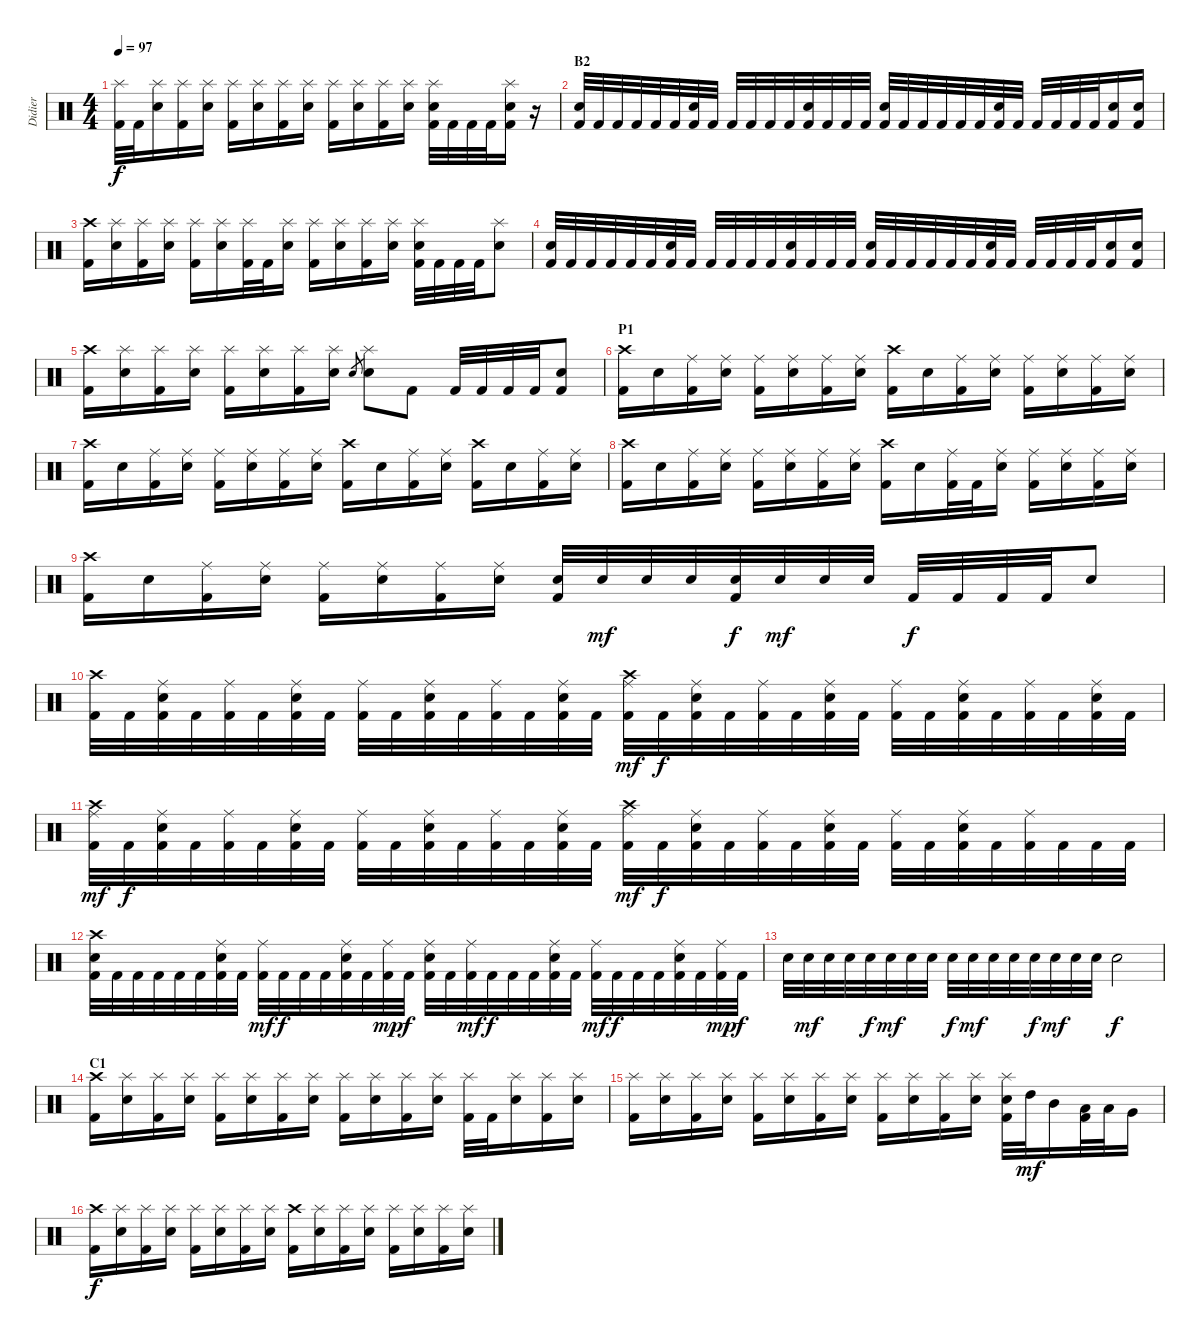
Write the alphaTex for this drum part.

\track ("Didier" "Didier") {instrument percussion}
\staff {score}
\articulation defaults
\ts (4 4)
\tempo 97
\clef neutral
\ks c
("Splash (hit)" "Kick (hit) 2").32{dy f} "Kick (hit) 2".32 ("Splash (hit)" "Snare (hit) 2").16 ("Splash (hit)" "Kick (hit) 2").16 ("Splash (hit)" "Snare (hit) 2").16 ("Splash (hit)" "Kick (hit) 2").16 ("Splash (hit)" "Snare (hit) 2").16 ("Splash (hit)" "Kick (hit) 2").16 ("Splash (hit)" "Snare (hit) 2").16 ("Splash (hit)" "Kick (hit) 2").16 ("Splash (hit)" "Snare (hit) 2").16 ("Splash (hit)" "Kick (hit) 2").16 ("Splash (hit)" "Snare (hit) 2").16 ("Splash (hit)" "Snare (hit) 2" "Kick (hit) 2").32 "Kick (hit) 2".32 "Kick (hit) 2".32 "Kick (hit) 2".32 ("Splash (hit)" "Snare (hit) 2" "Kick (hit) 2").16 r.16 |
\section ("" "B2")
("Snare (hit) 2" "Kick (hit) 2").32 "Kick (hit) 2".32 "Kick (hit) 2".32 "Kick (hit) 2".32 "Kick (hit) 2".32 "Kick (hit) 2".32 ("Snare (hit) 2" "Kick (hit) 2").32 "Kick (hit) 2".32 "Kick (hit) 2".32 "Kick (hit) 2".32 "Kick (hit) 2".32 "Kick (hit) 2".32 ("Snare (hit) 2" "Kick (hit) 2").32 "Kick (hit) 2".32 "Kick (hit) 2".32 "Kick (hit) 2".32 ("Snare (hit) 2" "Kick (hit) 2").32 "Kick (hit) 2".32 "Kick (hit) 2".32 "Kick (hit) 2".32 "Kick (hit) 2".32 "Kick (hit) 2".32 ("Snare (hit) 2" "Kick (hit) 2").32 "Kick (hit) 2".32 "Kick (hit) 2".32 "Kick (hit) 2".32 "Kick (hit) 2".32 "Kick (hit) 2".32 ("Snare (hit) 2" "Kick (hit) 2").16 ("Snare (hit) 2" "Kick (hit) 2").16 |
("Crash high (hit)" "Kick (hit) 2").16 ("Splash (hit)" "Snare (hit) 2").16 ("Splash (hit)" "Kick (hit) 2").16 ("Splash (hit)" "Snare (hit) 2").16 ("Splash (hit)" "Kick (hit) 2").16 ("Splash (hit)" "Snare (hit) 2").16 ("Splash (hit)" "Kick (hit) 2").32 "Kick (hit) 2".32 ("Splash (hit)" "Snare (hit) 2").16 ("Splash (hit)" "Kick (hit) 2").16 ("Splash (hit)" "Snare (hit) 2").16 ("Splash (hit)" "Kick (hit) 2").16 ("Splash (hit)" "Snare (hit) 2").16 ("Splash (hit)" "Snare (hit) 2" "Kick (hit) 2").32 "Kick (hit) 2".32 "Kick (hit) 2".32 "Kick (hit) 2".32 ("Splash (hit)" "Snare (hit) 2").8 |
("Snare (hit) 2" "Kick (hit) 2").32 "Kick (hit) 2".32 "Kick (hit) 2".32 "Kick (hit) 2".32 "Kick (hit) 2".32 "Kick (hit) 2".32 ("Snare (hit) 2" "Kick (hit) 2").32 "Kick (hit) 2".32 "Kick (hit) 2".32 "Kick (hit) 2".32 "Kick (hit) 2".32 "Kick (hit) 2".32 ("Snare (hit) 2" "Kick (hit) 2").32 "Kick (hit) 2".32 "Kick (hit) 2".32 "Kick (hit) 2".32 ("Snare (hit) 2" "Kick (hit) 2").32 "Kick (hit) 2".32 "Kick (hit) 2".32 "Kick (hit) 2".32 "Kick (hit) 2".32 "Kick (hit) 2".32 ("Snare (hit) 2" "Kick (hit) 2").32 "Kick (hit) 2".32 "Kick (hit) 2".32 "Kick (hit) 2".32 "Kick (hit) 2".32 "Kick (hit) 2".32 ("Snare (hit) 2" "Kick (hit) 2").16 ("Snare (hit) 2" "Kick (hit) 2").16 |
("Crash high (hit)" "Kick (hit) 2").16 ("Splash (hit)" "Snare (hit) 2").16 ("Splash (hit)" "Kick (hit) 2").16 ("Splash (hit)" "Snare (hit) 2").16 ("Splash (hit)" "Kick (hit) 2").16 ("Splash (hit)" "Snare (hit) 2").16 ("Splash (hit)" "Kick (hit) 2").16 ("Splash (hit)" "Snare (hit) 2").16 "Snare (hit) 2".8{gr} ("Splash (hit)" "Snare (hit) 2").8 "Kick (hit) 2".8 "Kick (hit) 2".32 "Kick (hit) 2".32 "Kick (hit) 2".32 "Kick (hit) 2".32 ("Kick (hit) 2" "Snare (hit) 2").8 |
\section ("" "P1")
("Crash high (hit)" "Kick (hit) 2").16 "Snare (hit) 2".16 ("Ride (middle)" "Kick (hit) 2").16 ("Ride (middle)" "Snare (hit) 2").16 ("Ride (middle)" "Kick (hit) 2").16 ("Ride (middle)" "Snare (hit) 2").16 ("Ride (middle)" "Kick (hit) 2").16 ("Ride (middle)" "Snare (hit) 2").16 ("Crash high (hit)" "Kick (hit) 2").16 "Snare (hit) 2".16 ("Ride (middle)" "Kick (hit) 2").16 ("Ride (middle)" "Snare (hit) 2").16 ("Ride (middle)" "Kick (hit) 2").16 ("Ride (middle)" "Snare (hit) 2").16 ("Ride (middle)" "Kick (hit) 2").16 ("Ride (middle)" "Snare (hit) 2").16 |
("Crash high (hit)" "Kick (hit) 2").16 "Snare (hit) 2".16 ("Ride (middle)" "Kick (hit) 2").16 ("Ride (middle)" "Snare (hit) 2").16 ("Ride (middle)" "Kick (hit) 2").16 ("Ride (middle)" "Snare (hit) 2").16 ("Ride (middle)" "Kick (hit) 2").16 ("Ride (middle)" "Snare (hit) 2").16 ("Crash high (hit)" "Kick (hit) 2").16 "Snare (hit) 2".16 ("Ride (middle)" "Kick (hit) 2").16 ("Ride (middle)" "Snare (hit) 2").16 ("Crash high (hit)" "Kick (hit) 2").16 "Snare (hit) 2".16 ("Ride (middle)" "Kick (hit) 2").16 ("Ride (middle)" "Snare (hit) 2").16 |
("Crash high (hit)" "Kick (hit) 2").16 "Snare (hit) 2".16 ("Ride (middle)" "Kick (hit) 2").16 ("Ride (middle)" "Snare (hit) 2").16 ("Ride (middle)" "Kick (hit) 2").16 ("Ride (middle)" "Snare (hit) 2").16 ("Ride (middle)" "Kick (hit) 2").16 ("Ride (middle)" "Snare (hit) 2").16 ("Crash high (hit)" "Kick (hit) 2").16 "Snare (hit) 2".16 ("Ride (middle)" "Kick (hit) 2").32 "Kick (hit) 2".32 ("Ride (middle)" "Snare (hit) 2").16 ("Ride (middle)" "Kick (hit) 2").16 ("Ride (middle)" "Snare (hit) 2").16 ("Ride (middle)" "Kick (hit) 2").16 ("Ride (middle)" "Snare (hit) 2").16 |
("Crash high (hit)" "Kick (hit) 2").16 "Snare (hit) 2".16 ("Ride (middle)" "Kick (hit) 2").16 ("Ride (middle)" "Snare (hit) 2").16 ("Ride (middle)" "Kick (hit) 2").16 ("Ride (middle)" "Snare (hit) 2").16 ("Ride (middle)" "Kick (hit) 2").16 ("Ride (middle)" "Snare (hit) 2").16 ("Kick (hit) 2" "Snare (hit) 2").32 "Snare (hit) 2".32{dy mf} "Snare (hit) 2".32 "Snare (hit) 2".32 ("Kick (hit) 2" "Snare (hit) 2").32{dy f} "Snare (hit) 2".32{dy mf} "Snare (hit) 2".32 "Snare (hit) 2".32 "Kick (hit) 2".32{dy f} "Kick (hit) 2".32 "Kick (hit) 2".32 "Kick (hit) 2".32 "Snare (hit) 2".8 |
("Crash high (hit)" "Kick (hit) 2").32 "Kick (hit) 2".32 ("Ride (middle)" "Snare (hit) 2" "Kick (hit) 2").32 "Kick (hit) 2".32 ("Ride (middle)" "Kick (hit) 2").32 "Kick (hit) 2".32 ("Ride (middle)" "Snare (hit) 2" "Kick (hit) 2").32 "Kick (hit) 2".32 ("Ride (middle)" "Kick (hit) 2").32 "Kick (hit) 2".32 ("Ride (middle)" "Snare (hit) 2" "Kick (hit) 2").32 "Kick (hit) 2".32 ("Ride (middle)" "Kick (hit) 2").32 "Kick (hit) 2".32 ("Ride (middle)" "Snare (hit) 2" "Kick (hit) 2").32 "Kick (hit) 2".32 ("Crash high (hit)" "Ride (middle)" "Kick (hit) 2").32{dy mf} "Kick (hit) 2".32{dy f} ("Ride (middle)" "Snare (hit) 2" "Kick (hit) 2").32 "Kick (hit) 2".32 ("Ride (middle)" "Kick (hit) 2").32 "Kick (hit) 2".32 ("Ride (middle)" "Snare (hit) 2" "Kick (hit) 2").32 "Kick (hit) 2".32 ("Ride (middle)" "Kick (hit) 2").32 "Kick (hit) 2".32 ("Ride (middle)" "Snare (hit) 2" "Kick (hit) 2").32 "Kick (hit) 2".32 ("Ride (middle)" "Kick (hit) 2").32 "Kick (hit) 2".32 ("Ride (middle)" "Snare (hit) 2" "Kick (hit) 2").32 "Kick (hit) 2".32 |
("Crash high (hit)" "Ride (middle)" "Kick (hit) 2").32{dy mf} "Kick (hit) 2".32{dy f} ("Ride (middle)" "Snare (hit) 2" "Kick (hit) 2").32 "Kick (hit) 2".32 ("Ride (middle)" "Kick (hit) 2").32 "Kick (hit) 2".32 ("Ride (middle)" "Snare (hit) 2" "Kick (hit) 2").32 "Kick (hit) 2".32 ("Ride (middle)" "Kick (hit) 2").32 "Kick (hit) 2".32 ("Ride (middle)" "Snare (hit) 2" "Kick (hit) 2").32 "Kick (hit) 2".32 ("Ride (middle)" "Kick (hit) 2").32 "Kick (hit) 2".32 ("Ride (middle)" "Snare (hit) 2" "Kick (hit) 2").32 "Kick (hit) 2".32 ("Crash high (hit)" "Ride (middle)" "Kick (hit) 2").32{dy mf} "Kick (hit) 2".32{dy f} ("Ride (middle)" "Snare (hit) 2" "Kick (hit) 2").32 "Kick (hit) 2".32 ("Ride (middle)" "Kick (hit) 2").32 "Kick (hit) 2".32 ("Ride (middle)" "Snare (hit) 2" "Kick (hit) 2").32 "Kick (hit) 2".32 ("Ride (middle)" "Kick (hit) 2").32 "Kick (hit) 2".32 ("Ride (middle)" "Snare (hit) 2" "Kick (hit) 2").32 "Kick (hit) 2".32 ("Ride (middle)" "Kick (hit) 2").32 "Kick (hit) 2".32 "Kick (hit) 2".32 "Kick (hit) 2".32 |
("Crash high (hit)" "Snare (hit) 2" "Kick (hit) 2").32 "Kick (hit) 2".32 "Kick (hit) 2".32 "Kick (hit) 2".32 "Kick (hit) 2".32 "Kick (hit) 2".32 ("Ride (middle)" "Snare (hit) 2" "Kick (hit) 2").32 "Kick (hit) 2".32 ("Ride (middle)" "Kick (hit) 2").32{dy mf} "Kick (hit) 2".32{dy f} "Kick (hit) 2".32 "Kick (hit) 2".32 ("Ride (middle)" "Snare (hit) 2" "Kick (hit) 2").32 "Kick (hit) 2".32 ("Ride (middle)" "Kick (hit) 2").32{dy mp} "Kick (hit) 2".32{dy f} ("Ride (middle)" "Snare (hit) 2" "Kick (hit) 2").32 "Kick (hit) 2".32 ("Ride (middle)" "Kick (hit) 2").32{dy mf} "Kick (hit) 2".32{dy f} "Kick (hit) 2".32 "Kick (hit) 2".32 ("Ride (middle)" "Snare (hit) 2" "Kick (hit) 2").32 "Kick (hit) 2".32 ("Ride (middle)" "Kick (hit) 2").32{dy mf} "Kick (hit) 2".32{dy f} "Kick (hit) 2".32 "Kick (hit) 2".32 ("Ride (middle)" "Snare (hit) 2" "Kick (hit) 2").32 "Kick (hit) 2".32 ("Ride (middle)" "Kick (hit) 2").32{dy mp} "Kick (hit) 2".32{dy f} |
"Snare (hit) 2".32 "Snare (hit) 2".32{dy mf} "Snare (hit) 2".32 "Snare (hit) 2".32 "Snare (hit) 2".32{dy f} "Snare (hit) 2".32{dy mf} "Snare (hit) 2".32 "Snare (hit) 2".32 "Snare (hit) 2".32{dy f} "Snare (hit) 2".32{dy mf} "Snare (hit) 2".32 "Snare (hit) 2".32 "Snare (hit) 2".32{dy f} "Snare (hit) 2".32{dy mf} "Snare (hit) 2".32 "Snare (hit) 2".32 "Snare (hit) 2".2{dy f} |
\section ("" "C1")
("Crash high (hit)" "Kick (hit) 2").16 ("Splash (hit)" "Snare (hit) 2").16 ("Splash (hit)" "Kick (hit) 2").16 ("Splash (hit)" "Snare (hit) 2").16 ("Splash (hit)" "Kick (hit) 2").16 ("Splash (hit)" "Snare (hit) 2").16 ("Splash (hit)" "Kick (hit) 2").16 ("Splash (hit)" "Snare (hit) 2").16 ("Splash (hit)" "Kick (hit) 2").16 ("Splash (hit)" "Snare (hit) 2").16 ("Splash (hit)" "Kick (hit) 2").16 ("Splash (hit)" "Snare (hit) 2").16 ("Splash (hit)" "Kick (hit) 2").32 "Kick (hit) 2".32 ("Splash (hit)" "Snare (hit) 2").16 ("Splash (hit)" "Kick (hit) 2").16 ("Splash (hit)" "Snare (hit) 2").16 |
("Splash (hit)" "Kick (hit) 2").16 ("Splash (hit)" "Snare (hit) 2").16 ("Splash (hit)" "Kick (hit) 2").16 ("Splash (hit)" "Snare (hit) 2").16 ("Splash (hit)" "Kick (hit) 2").16 ("Splash (hit)" "Snare (hit) 2").16 ("Splash (hit)" "Kick (hit) 2").16 ("Splash (hit)" "Snare (hit) 2").16 ("Splash (hit)" "Kick (hit) 2").16 ("Splash (hit)" "Snare (hit) 2").16 ("Splash (hit)" "Kick (hit) 2").16 ("Splash (hit)" "Snare (hit) 2").16 ("Splash (hit)" "Snare (hit) 2" "Kick (hit) 2").32 "High Tom (hit)".32{dy mf} "Mid Tom (hit)".16 ("Low Tom (hit)" "Kick (hit) 2").32 "Low Tom (hit)".32 "Very Low Tom (hit)".16 |
("Crash high (hit)" "Kick (hit) 2").16{dy f} ("Splash (hit)" "Snare (hit) 2").16 ("Splash (hit)" "Kick (hit) 2").16 ("Splash (hit)" "Snare (hit) 2").16 ("Splash (hit)" "Kick (hit) 2").16 ("Splash (hit)" "Snare (hit) 2").16 ("Splash (hit)" "Kick (hit) 2").16 ("Splash (hit)" "Snare (hit) 2").16 ("Crash high (hit)" "Kick (hit) 2").16 ("Splash (hit)" "Snare (hit) 2").16 ("Splash (hit)" "Kick (hit) 2").16 ("Splash (hit)" "Snare (hit) 2").16 ("Splash (hit)" "Kick (hit) 2").16 ("Splash (hit)" "Snare (hit) 2").16 ("Splash (hit)" "Kick (hit) 2").16 ("Splash (hit)" "Snare (hit) 2").16
